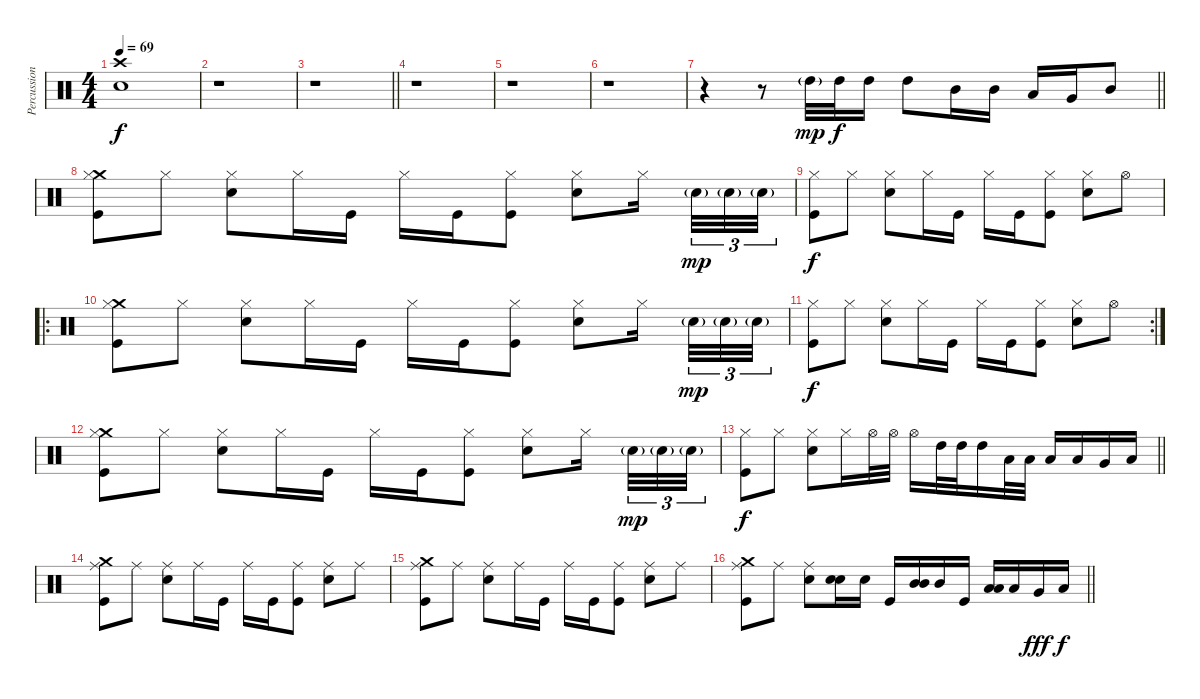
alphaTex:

\track ("Percussion" "Percussion") {instrument percussion}
\staff {score}
\articulation defaults
\ts (4 4)
\tempo 69
\clef neutral
\ks c
("Crash high (hit)" "Electric Snare (hit)").1{dy f} |
r.1 |
\barLineRight lightlight
r.1 |
r.1 |
r.1 |
r.1 |
\barLineRight lightlight
r.4 r.8 "High Tom (hit)"{g}.32{dy mp} "High Tom (hit)".32{dy f} "High Tom (hit)".16 "High Tom (hit)".8 "Mid Tom (hit)".16 "Mid Tom (hit)".16 "Low Tom (hit)".16 "Very Low Tom (hit)".16 "Mid Tom (hit)".8 |
("Crash medium (hit)" "Kick (hit)" "Hi-Hat (closed)").8 "Hi-Hat (closed)".8 ("Electric Snare (hit)" "Hi-Hat (closed)").8 "Hi-Hat (closed)".16 "Kick (hit)".16 "Hi-Hat (closed)".16 "Kick (hit)".16 ("Kick (hit)" "Hi-Hat (closed)").8 ("Electric Snare (hit)" "Hi-Hat (closed)").8 "Hi-Hat (closed)".16{beam splitsecondary} "Electric Snare (hit)"{g}.32{tu (3 2) dy mp} "Electric Snare (hit)"{g}.32{tu (3 2)} "Electric Snare (hit)"{g}.32{tu (3 2)} |
("Kick (hit)" "Hi-Hat (closed)").8{dy f} "Hi-Hat (closed)".8 ("Electric Snare (hit)" "Hi-Hat (closed)").8 "Hi-Hat (closed)".16 "Kick (hit)".16 "Hi-Hat (closed)".16 "Kick (hit)".16 ("Kick (hit)" "Hi-Hat (closed)").8 ("Electric Snare (hit)" "Hi-Hat (closed)").8 "Hi-Hat (open)".8 |
\ro
("Crash medium (hit)" "Kick (hit)" "Hi-Hat (closed)").8 "Hi-Hat (closed)".8 ("Electric Snare (hit)" "Hi-Hat (closed)").8 "Hi-Hat (closed)".16 "Kick (hit)".16 "Hi-Hat (closed)".16 "Kick (hit)".16 ("Kick (hit)" "Hi-Hat (closed)").8 ("Electric Snare (hit)" "Hi-Hat (closed)").8 "Hi-Hat (closed)".16{beam splitsecondary} "Electric Snare (hit)"{g}.32{tu (3 2) dy mp} "Electric Snare (hit)"{g}.32{tu (3 2)} "Electric Snare (hit)"{g}.32{tu (3 2)} |
\rc 2
("Kick (hit)" "Hi-Hat (closed)").8{dy f} "Hi-Hat (closed)".8 ("Electric Snare (hit)" "Hi-Hat (closed)").8 "Hi-Hat (closed)".16 "Kick (hit)".16 "Hi-Hat (closed)".16 "Kick (hit)".16 ("Kick (hit)" "Hi-Hat (closed)").8 ("Electric Snare (hit)" "Hi-Hat (closed)").8 "Hi-Hat (open)".8 |
("Crash medium (hit)" "Kick (hit)" "Hi-Hat (closed)").8 "Hi-Hat (closed)".8 ("Electric Snare (hit)" "Hi-Hat (closed)").8 "Hi-Hat (closed)".16 "Kick (hit)".16 "Hi-Hat (closed)".16 "Kick (hit)".16 ("Kick (hit)" "Hi-Hat (closed)").8 ("Electric Snare (hit)" "Hi-Hat (closed)").8 "Hi-Hat (closed)".16{beam splitsecondary} "Electric Snare (hit)"{g}.32{tu (3 2) dy mp} "Electric Snare (hit)"{g}.32{tu (3 2)} "Electric Snare (hit)"{g}.32{tu (3 2)} |
\barLineRight lightlight
("Kick (hit)" "Hi-Hat (closed)").8{dy f} "Hi-Hat (closed)".8 ("Electric Snare (hit)" "Hi-Hat (closed)").8 "Hi-Hat (closed)".16 "Hi-Hat (open)".32 "Hi-Hat (open)".32 "Hi-Hat (open)".16 "High Tom (hit)".32 "High Tom (hit)".32 "High Tom (hit)".16 "Low Tom (hit)".32 "Low Tom (hit)".32 "Low Tom (hit)".16 "Low Tom (hit)".16 "Very Low Tom (hit)".16 "Low Floor Tom (hit)".16 |
("Crash medium (hit)" "Kick (hit)" "Ride (middle)").8 "Ride (middle)".8 ("Electric Snare (hit)" "Ride (middle)").8 "Ride (middle)".16 "Kick (hit)".16 "Ride (middle)".16 "Kick (hit)".16 ("Kick (hit)" "Ride (middle)").8 ("Electric Snare (hit)" "Ride (middle)").8 "Ride (middle)".8 |
("Crash medium (hit)" "Kick (hit)" "Ride (middle)").8 "Ride (middle)".8 ("Electric Snare (hit)" "Ride (middle)").8 "Ride (middle)".16 "Kick (hit)".16 "Ride (middle)".16 "Kick (hit)".16 ("Kick (hit)" "Ride (middle)").8 ("Electric Snare (hit)" "Ride (middle)").8 "Ride (middle)".8 |
\barLineRight lightlight
("Crash medium (hit)" "Kick (hit)" "Ride (middle)").8 "Ride (middle)".8 ("Electric Snare (hit)" "Ride (middle)").8 ("Electric Snare (hit)" "Electric Snare (hit)").16{bd 60} "Electric Snare (hit)".16 "Kick (hit)".16 ("Mid Tom (hit)" "Mid Tom (hit)").16{bd 240} "Mid Tom (hit)".16 "Kick (hit)".16 ("Low Floor Tom (hit)" "Low Floor Tom (hit)").16{bd 240} "Low Floor Tom (hit)".16 "Very Low Tom (hit)".16{dy fff} "Low Floor Tom (hit)".16{dy f}
